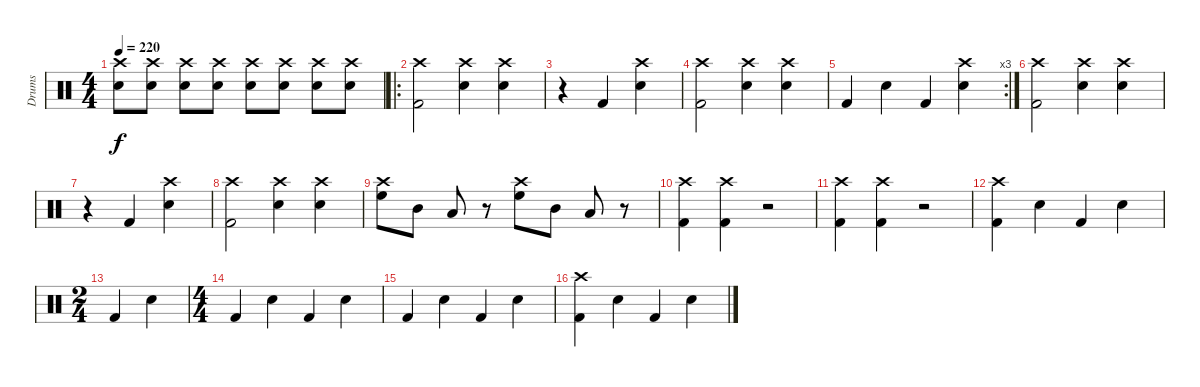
\track ("Drums" "Drums") {instrument percussion}
\staff {score}
\articulation defaults
\ts (4 4)
\tempo 220
\clef neutral
\ks c
("Crash high (hit)" "Electric Snare (hit)").8{dy f} ("Electric Snare (hit)" "Crash high (hit)").8 ("Crash high (hit)" "Electric Snare (hit)").8 ("Crash high (hit)" "Electric Snare (hit)").8 ("Crash high (hit)" "Electric Snare (hit)").8 ("Crash high (hit)" "Electric Snare (hit)").8 ("Crash high (hit)" "Electric Snare (hit)").8 ("Electric Snare (hit)" "Crash high (hit)").8 |
\ro
("Crash high (hit)" "Kick (hit) 2").2 ("Crash high (hit)" "Electric Snare (hit)").4 ("Crash high (hit)" "Electric Snare (hit)").4 |
r.4 "Kick (hit) 2".4 ("Crash high (hit)" "Electric Snare (hit)").4 |
("Crash high (hit)" "Kick (hit) 2").2 ("Crash high (hit)" "Electric Snare (hit)").4 ("Crash high (hit)" "Electric Snare (hit)").4 |
\rc 3 "Kick (hit) 2".4 "Electric Snare (hit)".4 "Kick (hit) 2".4
("Crash high (hit)" "Electric Snare (hit)").4 |
("Crash high (hit)" "Kick (hit) 2").2 ("Crash high (hit)" "Electric Snare (hit)").4 ("Crash high (hit)" "Electric Snare (hit)").4 |
r.4 "Kick (hit) 2".4 ("Crash high (hit)" "Electric Snare (hit)").4 |
("Crash high (hit)" "Kick (hit) 2").2 ("Crash high (hit)" "Electric Snare (hit)").4 ("Crash high (hit)" "Electric Snare (hit)").4 |
("Crash high (hit)" "High Floor Tom (hit)").8 "Mid Tom (hit)".8 "Low Tom (hit)".8 r.8 ("Crash high (hit)" "High Floor Tom (hit)").8 "Mid Tom (hit)".8 "Low Tom (hit)".8 r.8 |
("Kick (hit) 2" "Crash high (hit)").4 ("Crash high (hit)" "Kick (hit) 2").4 r.2 |
("Kick (hit) 2" "Crash high (hit)").4 ("Crash high (hit)" "Kick (hit) 2").4 r.2 |
("Crash high (hit)" "Kick (hit) 2").4 "Electric Snare (hit)".4 "Kick (hit) 2".4 "Electric Snare (hit)".4 |
\ts (2 4)
"Kick (hit) 2".4 "Electric Snare (hit)".4 |
\ts (4 4)
"Kick (hit) 2".4 "Electric Snare (hit)".4 "Kick (hit) 2".4 "Electric Snare (hit)".4 |
"Kick (hit) 2".4 "Electric Snare (hit)".4 "Kick (hit) 2".4 "Electric Snare (hit)".4 |
("Crash high (hit)" "Kick (hit) 2").4 "Electric Snare (hit)".4 "Kick (hit) 2".4 "Electric Snare (hit)".4
